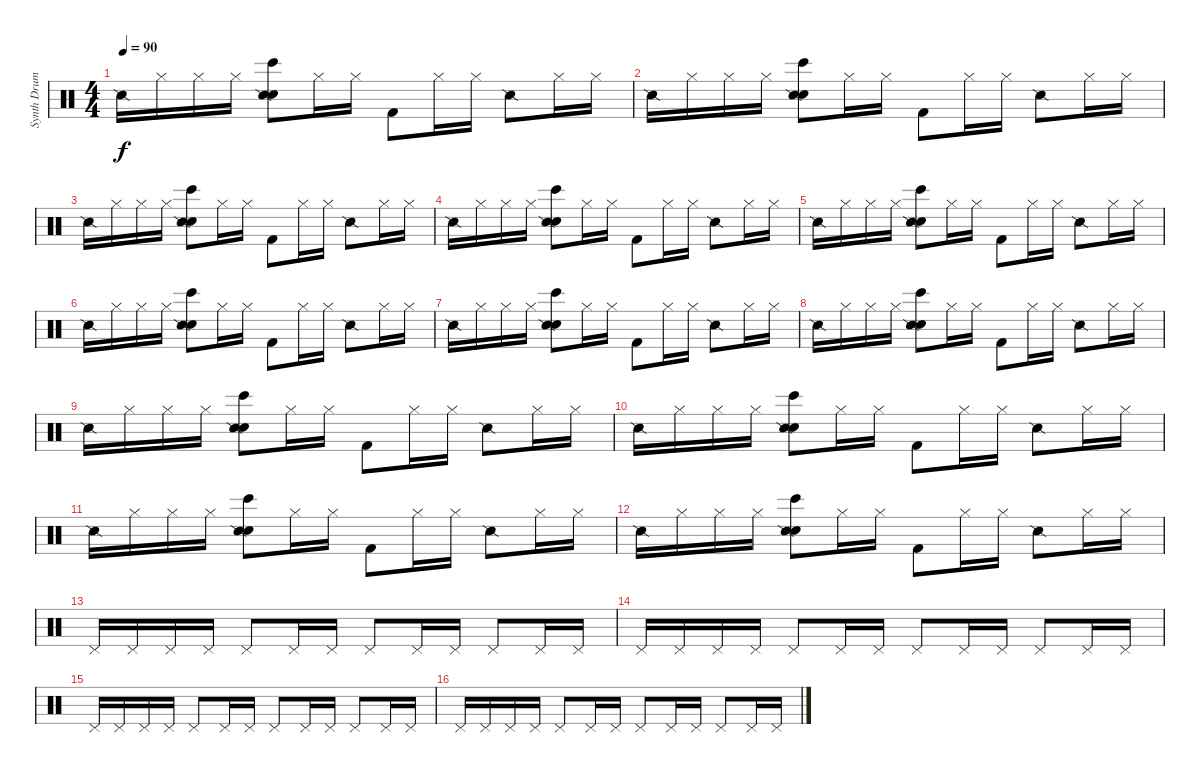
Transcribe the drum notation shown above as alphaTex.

\track ("Synth Drums" "Synth Drum") {instrument percussion}
\staff {score}
\articulation defaults
\ts (4 4)
\tempo 90
\clef neutral
\ks c "Snare (side stick) 2".16{dy f} "Hi-Hat (closed)".16 "Hi-Hat (closed)".16 "Hi-Hat (closed)".16
("Bongo High (hit)" "Hand Clap (hit)" "Snare (side stick) 2").8 "Hi-Hat (closed)".16 "Hi-Hat (closed)".16 "Kick (hit) 2".8 "Hi-Hat (closed)".16 "Hi-Hat (closed)".16 "Snare (side stick) 2".8 "Hi-Hat (closed)".16 "Hi-Hat (closed)".16 |
"Snare (side stick) 2".16 "Hi-Hat (closed)".16 "Hi-Hat (closed)".16 "Hi-Hat (closed)".16 ("Bongo High (hit)" "Hand Clap (hit)" "Snare (side stick) 2").8 "Hi-Hat (closed)".16 "Hi-Hat (closed)".16 "Kick (hit) 2".8 "Hi-Hat (closed)".16 "Hi-Hat (closed)".16 "Snare (side stick) 2".8 "Hi-Hat (closed)".16 "Hi-Hat (closed)".16 |
"Snare (side stick) 2".16 "Hi-Hat (closed)".16 "Hi-Hat (closed)".16 "Hi-Hat (closed)".16 ("Bongo High (hit)" "Hand Clap (hit)" "Snare (side stick) 2").8 "Hi-Hat (closed)".16 "Hi-Hat (closed)".16 "Kick (hit) 2".8 "Hi-Hat (closed)".16 "Hi-Hat (closed)".16 "Snare (side stick) 2".8 "Hi-Hat (closed)".16 "Hi-Hat (closed)".16 |
"Snare (side stick) 2".16 "Hi-Hat (closed)".16 "Hi-Hat (closed)".16 "Hi-Hat (closed)".16 ("Bongo High (hit)" "Hand Clap (hit)" "Snare (side stick) 2").8 "Hi-Hat (closed)".16 "Hi-Hat (closed)".16 "Kick (hit) 2".8 "Hi-Hat (closed)".16 "Hi-Hat (closed)".16 "Snare (side stick) 2".8 "Hi-Hat (closed)".16 "Hi-Hat (closed)".16 |
"Snare (side stick) 2".16 "Hi-Hat (closed)".16 "Hi-Hat (closed)".16 "Hi-Hat (closed)".16 ("Bongo High (hit)" "Hand Clap (hit)" "Snare (side stick) 2").8 "Hi-Hat (closed)".16 "Hi-Hat (closed)".16 "Kick (hit) 2".8 "Hi-Hat (closed)".16 "Hi-Hat (closed)".16 "Snare (side stick) 2".8 "Hi-Hat (closed)".16 "Hi-Hat (closed)".16 |
"Snare (side stick) 2".16 "Hi-Hat (closed)".16 "Hi-Hat (closed)".16 "Hi-Hat (closed)".16 ("Bongo High (hit)" "Hand Clap (hit)" "Snare (side stick) 2").8 "Hi-Hat (closed)".16 "Hi-Hat (closed)".16 "Kick (hit) 2".8 "Hi-Hat (closed)".16 "Hi-Hat (closed)".16 "Snare (side stick) 2".8 "Hi-Hat (closed)".16 "Hi-Hat (closed)".16 |
"Snare (side stick) 2".16 "Hi-Hat (closed)".16 "Hi-Hat (closed)".16 "Hi-Hat (closed)".16 ("Bongo High (hit)" "Hand Clap (hit)" "Snare (side stick) 2").8 "Hi-Hat (closed)".16 "Hi-Hat (closed)".16 "Kick (hit) 2".8 "Hi-Hat (closed)".16 "Hi-Hat (closed)".16 "Snare (side stick) 2".8 "Hi-Hat (closed)".16 "Hi-Hat (closed)".16 |
"Snare (side stick) 2".16 "Hi-Hat (closed)".16 "Hi-Hat (closed)".16 "Hi-Hat (closed)".16 ("Bongo High (hit)" "Hand Clap (hit)" "Snare (side stick) 2").8 "Hi-Hat (closed)".16 "Hi-Hat (closed)".16 "Kick (hit) 2".8 "Hi-Hat (closed)".16 "Hi-Hat (closed)".16 "Snare (side stick) 2".8 "Hi-Hat (closed)".16 "Hi-Hat (closed)".16 |
"Snare (side stick) 2".16 "Hi-Hat (closed)".16 "Hi-Hat (closed)".16 "Hi-Hat (closed)".16 ("Bongo High (hit)" "Hand Clap (hit)" "Snare (side stick) 2").8 "Hi-Hat (closed)".16 "Hi-Hat (closed)".16 "Kick (hit) 2".8 "Hi-Hat (closed)".16 "Hi-Hat (closed)".16 "Snare (side stick) 2".8 "Hi-Hat (closed)".16 "Hi-Hat (closed)".16 |
"Snare (side stick) 2".16 "Hi-Hat (closed)".16 "Hi-Hat (closed)".16 "Hi-Hat (closed)".16 ("Bongo High (hit)" "Hand Clap (hit)" "Snare (side stick) 2").8 "Hi-Hat (closed)".16 "Hi-Hat (closed)".16 "Kick (hit) 2".8 "Hi-Hat (closed)".16 "Hi-Hat (closed)".16 "Snare (side stick) 2".8 "Hi-Hat (closed)".16 "Hi-Hat (closed)".16 |
"Snare (side stick) 2".16 "Hi-Hat (closed)".16 "Hi-Hat (closed)".16 "Hi-Hat (closed)".16 ("Bongo High (hit)" "Hand Clap (hit)" "Snare (side stick) 2").8 "Hi-Hat (closed)".16 "Hi-Hat (closed)".16 "Kick (hit) 2".8 "Hi-Hat (closed)".16 "Hi-Hat (closed)".16 "Snare (side stick) 2".8 "Hi-Hat (closed)".16 "Hi-Hat (closed)".16 |
"Snare (side stick) 2".16 "Hi-Hat (closed)".16 "Hi-Hat (closed)".16 "Hi-Hat (closed)".16 ("Bongo High (hit)" "Hand Clap (hit)" "Snare (side stick) 2").8 "Hi-Hat (closed)".16 "Hi-Hat (closed)".16 "Kick (hit) 2".8 "Hi-Hat (closed)".16 "Hi-Hat (closed)".16 "Snare (side stick) 2".8 "Hi-Hat (closed)".16 "Hi-Hat (closed)".16 |
"Pedal Hi-Hat (hit)".16{balance 13} "Pedal Hi-Hat (hit)".16 "Pedal Hi-Hat (hit)".16 "Pedal Hi-Hat (hit)".16 "Pedal Hi-Hat (hit)".8 "Pedal Hi-Hat (hit)".16 "Pedal Hi-Hat (hit)".16 "Pedal Hi-Hat (hit)".8 "Pedal Hi-Hat (hit)".16 "Pedal Hi-Hat (hit)".16 "Pedal Hi-Hat (hit)".8 "Pedal Hi-Hat (hit)".16 "Pedal Hi-Hat (hit)".16 |
"Pedal Hi-Hat (hit)".16 "Pedal Hi-Hat (hit)".16 "Pedal Hi-Hat (hit)".16 "Pedal Hi-Hat (hit)".16 "Pedal Hi-Hat (hit)".8 "Pedal Hi-Hat (hit)".16 "Pedal Hi-Hat (hit)".16 "Pedal Hi-Hat (hit)".8 "Pedal Hi-Hat (hit)".16 "Pedal Hi-Hat (hit)".16 "Pedal Hi-Hat (hit)".8 "Pedal Hi-Hat (hit)".16 "Pedal Hi-Hat (hit)".16 |
"Pedal Hi-Hat (hit)".16 "Pedal Hi-Hat (hit)".16 "Pedal Hi-Hat (hit)".16 "Pedal Hi-Hat (hit)".16 "Pedal Hi-Hat (hit)".8 "Pedal Hi-Hat (hit)".16 "Pedal Hi-Hat (hit)".16 "Pedal Hi-Hat (hit)".8 "Pedal Hi-Hat (hit)".16 "Pedal Hi-Hat (hit)".16 "Pedal Hi-Hat (hit)".8 "Pedal Hi-Hat (hit)".16 "Pedal Hi-Hat (hit)".16 |
"Pedal Hi-Hat (hit)".16 "Pedal Hi-Hat (hit)".16 "Pedal Hi-Hat (hit)".16 "Pedal Hi-Hat (hit)".16 "Pedal Hi-Hat (hit)".8 "Pedal Hi-Hat (hit)".16 "Pedal Hi-Hat (hit)".16 "Pedal Hi-Hat (hit)".8 "Pedal Hi-Hat (hit)".16 "Pedal Hi-Hat (hit)".16 "Pedal Hi-Hat (hit)".8 "Pedal Hi-Hat (hit)".16 "Pedal Hi-Hat (hit)".16
